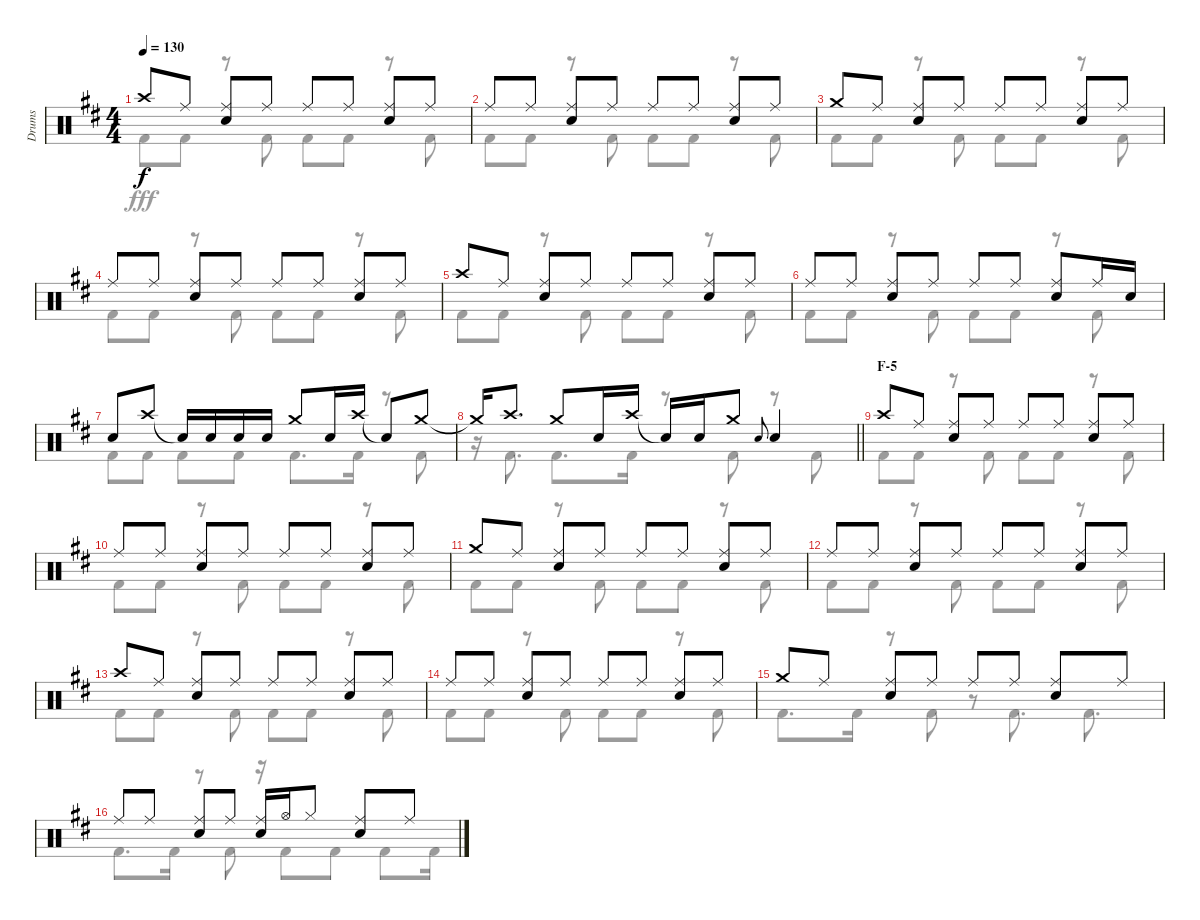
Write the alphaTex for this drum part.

\track ("Drums" "Drums") {instrument percussion}
\staff {score}
\articulation defaults
\voice
\ts (4 4)
\tempo 130
\clef neutral
\ks d "Crash high (hit)".8{dy f} "Ride (middle)".8
("Ride (middle)" "Snare (hit) 2").8 "Ride (middle)".8 "Ride (middle)".8 "Ride (middle)".8 ("Ride (middle)" "Snare (hit) 2").8 "Ride (middle)".8 |
"Ride (middle)".8 "Ride (middle)".8 ("Ride (middle)" "Snare (hit) 2").8 "Ride (middle)".8 "Ride (middle)".8 "Ride (middle)".8 ("Ride (middle)" "Snare (hit) 2").8 "Ride (middle)".8 |
"Crash medium (hit)".8 "Ride (middle)".8 ("Ride (middle)" "Snare (hit) 2").8 "Ride (middle)".8 "Ride (middle)".8 "Ride (middle)".8 ("Ride (middle)" "Snare (hit) 2").8 "Ride (middle)".8 |
"Ride (middle)".8 "Ride (middle)".8 ("Ride (middle)" "Snare (hit) 2").8 "Ride (middle)".8 "Ride (middle)".8 "Ride (middle)".8 ("Ride (middle)" "Snare (hit) 2").8 "Ride (middle)".8 |
"Crash high (hit)".8 "Ride (middle)".8 ("Ride (middle)" "Snare (hit) 2").8 "Ride (middle)".8 "Ride (middle)".8 "Ride (middle)".8 ("Ride (middle)" "Snare (hit) 2").8 "Ride (middle)".8 |
"Ride (middle)".8 "Ride (middle)".8 ("Ride (middle)" "Snare (hit) 2").8 "Ride (middle)".8 "Ride (middle)".8 "Ride (middle)".8 ("Ride (middle)" "Snare (hit) 2").8 "Ride (middle)".16 "Snare (hit) 2".16 |
"Snare (hit) 2".8 "Crash high (hit)".8 "Snare (hit)"{t}.16 "Snare (hit) 2".16 "Snare (hit) 2".16 "Snare (hit) 2".16 "Crash medium (hit)".8 "Snare (hit) 2".16 "Crash high (hit)".16 "Snare (hit)"{t}.8 "Crash medium (hit)".8 |
\barLineRight lightlight "Crash medium (hit)"{t}.16 "Crash high (hit)".8{d} "Crash medium (hit)".8 "Snare (hit) 2".16 "Crash high (hit)".16 "Snare (hit)"{t}.16 "Snare (hit) 2".16 "Crash medium (hit)".8 "Snare (hit) 2".8{gr onbeat} "Snare (hit) 2".4
|
\section ("" "F-5")
"Crash high (hit)".8 "Ride (middle)".8 ("Ride (middle)" "Snare (hit) 2").8 "Ride (middle)".8 "Ride (middle)".8 "Ride (middle)".8 ("Ride (middle)" "Snare (hit) 2").8 "Ride (middle)".8 |
"Ride (middle)".8 "Ride (middle)".8 ("Ride (middle)" "Snare (hit) 2").8 "Ride (middle)".8 "Ride (middle)".8 "Ride (middle)".8 ("Ride (middle)" "Snare (hit) 2").8 "Ride (middle)".8 |
"Crash medium (hit)".8 "Ride (middle)".8 ("Ride (middle)" "Snare (hit) 2").8 "Ride (middle)".8 "Ride (middle)".8 "Ride (middle)".8 ("Ride (middle)" "Snare (hit) 2").8 "Ride (middle)".8 |
"Ride (middle)".8 "Ride (middle)".8 ("Ride (middle)" "Snare (hit) 2").8 "Ride (middle)".8 "Ride (middle)".8 "Ride (middle)".8 ("Ride (middle)" "Snare (hit) 2").8 "Ride (middle)".8 |
"Crash high (hit)".8 "Ride (middle)".8 ("Ride (middle)" "Snare (hit) 2").8 "Ride (middle)".8 "Ride (middle)".8 "Ride (middle)".8 ("Ride (middle)" "Snare (hit) 2").8 "Ride (middle)".8 |
"Ride (middle)".8 "Ride (middle)".8 ("Ride (middle)" "Snare (hit) 2").8 "Ride (middle)".8 "Ride (middle)".8 "Ride (middle)".8 ("Ride (middle)" "Snare (hit) 2").8 "Ride (middle)".8 |
"Crash medium (hit)".8 "Ride (middle)".8 ("Ride (middle)" "Snare (hit) 2").8 "Ride (middle)".8 "Ride (middle)".8 "Ride (middle)".8 ("Ride (middle)" "Snare (hit) 2").8 "Ride (middle)".8 |
"Ride (middle)".8 "Ride (middle)".8 ("Ride (middle)" "Snare (hit) 2").8 "Ride (middle)".8 ("Ride (middle)" "Snare (hit) 2").16 "Hi-Hat (open)".16 "Hi-Hat (closed)".8 ("Ride (middle)" "Snare (hit) 2").8 "Ride (middle)".8
\voice
\clef neutral
\ottava regular
\simile none
\ks d "Kick (hit) 2".8{dy fff} "Kick (hit) 2".8
r.8 "Kick (hit) 2".8 "Kick (hit) 2".8 "Kick (hit) 2".8 r.8 "Kick (hit) 2".8 |
"Kick (hit) 2".8 "Kick (hit) 2".8 r.8 "Kick (hit) 2".8 "Kick (hit) 2".8 "Kick (hit) 2".8 r.8 "Kick (hit) 2".8 |
"Kick (hit) 2".8 "Kick (hit) 2".8 r.8 "Kick (hit) 2".8 "Kick (hit) 2".8 "Kick (hit) 2".8 r.8 "Kick (hit) 2".8 |
"Kick (hit) 2".8 "Kick (hit) 2".8 r.8 "Kick (hit) 2".8 "Kick (hit) 2".8 "Kick (hit) 2".8 r.8 "Kick (hit) 2".8 |
"Kick (hit) 2".8 "Kick (hit) 2".8 r.8 "Kick (hit) 2".8 "Kick (hit) 2".8 "Kick (hit) 2".8 r.8 "Kick (hit) 2".8 |
"Kick (hit) 2".8 "Kick (hit) 2".8 r.8 "Kick (hit) 2".8 "Kick (hit) 2".8 "Kick (hit) 2".8 r.8 "Kick (hit) 2".8 |
"Kick (hit) 2".8 "Kick (hit) 2".8 "Kick (hit) 2".8 "Kick (hit) 2".8 "Kick (hit) 2".8{d} "Kick (hit) 2".16 r.8 "Kick (hit) 2".8 |
\barLineRight lightlight
r.16 "Kick (hit) 2".8{d} "Kick (hit) 2".8{d} "Kick (hit) 2".16 r.8 "Kick (hit) 2".8 r.8 "Kick (hit) 2".8 |
"Kick (hit) 2".8 "Kick (hit) 2".8 r.8 "Kick (hit) 2".8 "Kick (hit) 2".8 "Kick (hit) 2".8 r.8 "Kick (hit) 2".8 |
"Kick (hit) 2".8 "Kick (hit) 2".8 r.8 "Kick (hit) 2".8 "Kick (hit) 2".8 "Kick (hit) 2".8 r.8 "Kick (hit) 2".8 |
"Kick (hit) 2".8 "Kick (hit) 2".8 r.8 "Kick (hit) 2".8 "Kick (hit) 2".8 "Kick (hit) 2".8 r.8 "Kick (hit) 2".8 |
"Kick (hit) 2".8 "Kick (hit) 2".8 r.8 "Kick (hit) 2".8 "Kick (hit) 2".8 "Kick (hit) 2".8 r.8 "Kick (hit) 2".8 |
"Kick (hit) 2".8 "Kick (hit) 2".8 r.8 "Kick (hit) 2".8 "Kick (hit) 2".8 "Kick (hit) 2".8 r.8 "Kick (hit) 2".8 |
"Kick (hit) 2".8 "Kick (hit) 2".8 r.8 "Kick (hit) 2".8 "Kick (hit) 2".8 "Kick (hit) 2".8 r.8 "Kick (hit) 2".8 |
"Kick (hit) 2".8{d} "Kick (hit) 2".16 r.8 "Kick (hit) 2".8 r.8 "Kick (hit) 2".8{d} "Kick (hit) 2".8{d} |
"Kick (hit) 2".8{d} "Kick (hit) 2".16 r.8 "Kick (hit) 2".8 r.16 "Kick (hit) 2".8 "Kick (hit) 2".8 "Kick (hit) 2".8 "Kick (hit) 2".16
